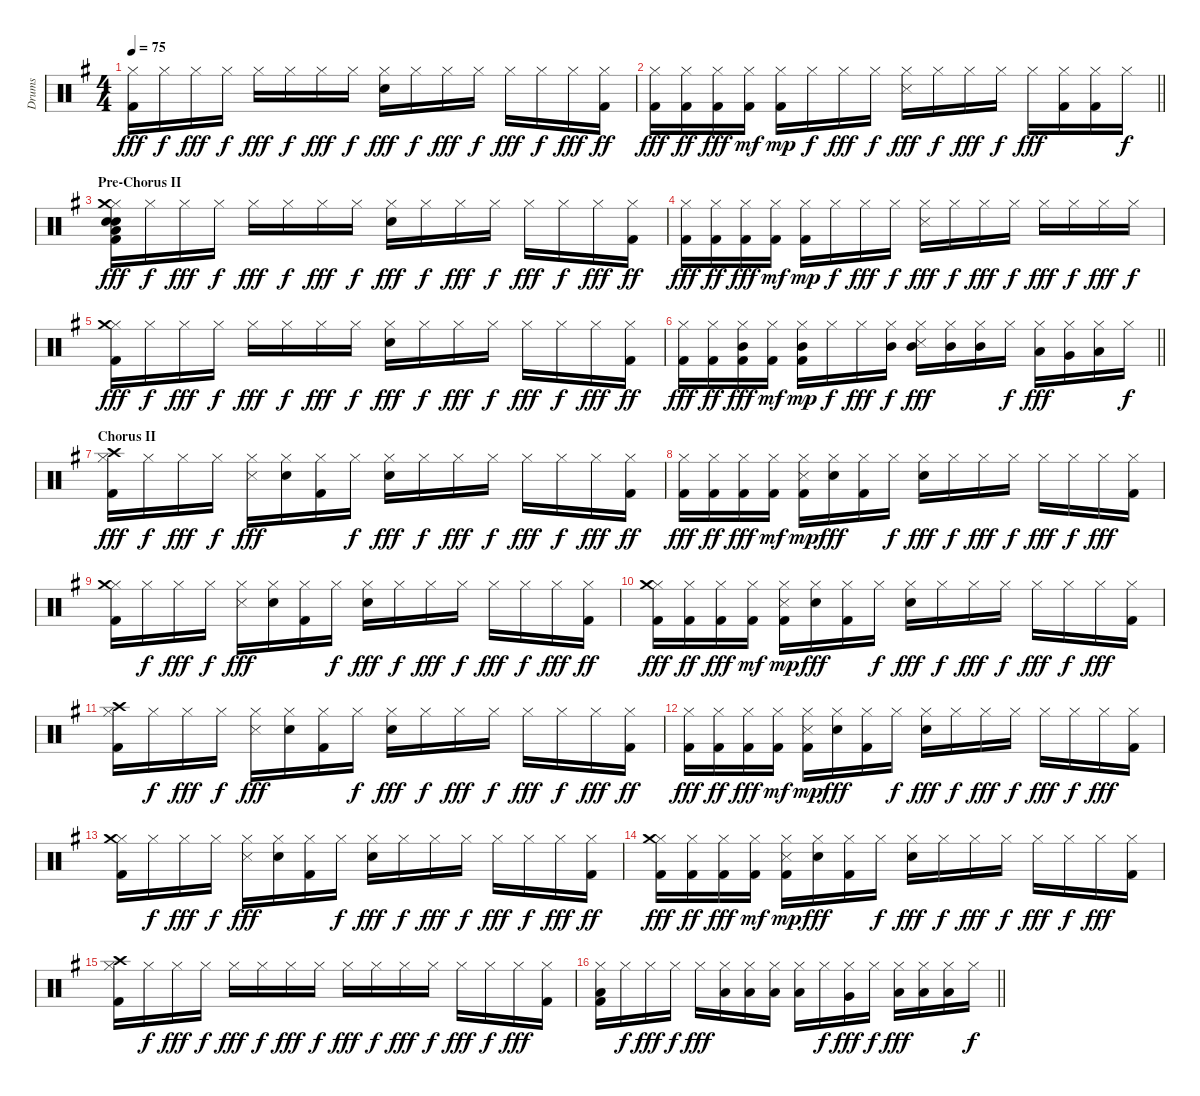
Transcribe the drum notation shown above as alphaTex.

\track ("Drums" "Drums") {instrument percussion}
\staff {score}
\articulation defaults
\ts (4 4)
\tempo 75
\clef neutral
\ks g
("Hi-Hat (closed)" "Kick (hit) 2").16{dy fff} "Hi-Hat (closed)".16{dy f} "Hi-Hat (closed)".16{dy fff} "Hi-Hat (closed)".16{dy f} "Hi-Hat (closed)".16{dy fff} "Hi-Hat (closed)".16{dy f} "Hi-Hat (closed)".16{dy fff} "Hi-Hat (closed)".16{dy f} ("Hi-Hat (closed)" "Snare (hit) 2").16{dy fff} "Hi-Hat (closed)".16{dy f} "Hi-Hat (closed)".16{dy fff} "Hi-Hat (closed)".16{dy f} "Hi-Hat (closed)".16{dy fff} "Hi-Hat (closed)".16{dy f} "Hi-Hat (closed)".16{dy fff} ("Hi-Hat (closed)" "Kick (hit) 2").16{dy ff} |
\barLineRight lightlight
("Hi-Hat (closed)" "Kick (hit) 2").16{dy fff} ("Hi-Hat (closed)" "Kick (hit) 2").16{dy ff} ("Hi-Hat (closed)" "Kick (hit) 2").16{dy fff} ("Hi-Hat (closed)" "Kick (hit) 2").16{dy mf} ("Hi-Hat (closed)" "Kick (hit) 2").16{dy mp} "Hi-Hat (closed)".16{dy f} "Hi-Hat (closed)".16{dy fff} "Hi-Hat (closed)".16{dy f} ("Hi-Hat (closed)" "Snare (side stick) 3").16{dy fff} "Hi-Hat (closed)".16{dy f} "Hi-Hat (closed)".16{dy fff} "Hi-Hat (closed)".16{dy f} "Hi-Hat (closed)".16{dy fff} ("Hi-Hat (closed)" "Kick (hit) 2").16 ("Hi-Hat (closed)" "Kick (hit) 2").16 "Hi-Hat (closed)".16{dy f} |
\section ("" "Pre-Chorus II")
("Hi-Hat (closed)" "Crash medium (hit)" "Low Tom (hit)" "Electric Snare (hit)" "Snare (hit) 2" "Kick (hit) 2").16{dy fff} "Hi-Hat (closed)".16{dy f} "Hi-Hat (closed)".16{dy fff} "Hi-Hat (closed)".16{dy f} "Hi-Hat (closed)".16{dy fff} "Hi-Hat (closed)".16{dy f} "Hi-Hat (closed)".16{dy fff} "Hi-Hat (closed)".16{dy f} ("Hi-Hat (closed)" "Snare (hit) 2").16{dy fff} "Hi-Hat (closed)".16{dy f} "Hi-Hat (closed)".16{dy fff} "Hi-Hat (closed)".16{dy f} "Hi-Hat (closed)".16{dy fff} "Hi-Hat (closed)".16{dy f} "Hi-Hat (closed)".16{dy fff} ("Hi-Hat (closed)" "Kick (hit) 2").16{dy ff} |
("Hi-Hat (closed)" "Kick (hit) 2").16{dy fff} ("Hi-Hat (closed)" "Kick (hit) 2").16{dy ff} ("Hi-Hat (closed)" "Kick (hit) 2").16{dy fff} ("Hi-Hat (closed)" "Kick (hit) 2").16{dy mf} ("Hi-Hat (closed)" "Kick (hit) 2").16{dy mp} "Hi-Hat (closed)".16{dy f} "Hi-Hat (closed)".16{dy fff} "Hi-Hat (closed)".16{dy f} ("Hi-Hat (closed)" "Snare (side stick) 3").16{dy fff} "Hi-Hat (closed)".16{dy f} "Hi-Hat (closed)".16{dy fff} "Hi-Hat (closed)".16{dy f} "Hi-Hat (closed)".16{dy fff} "Hi-Hat (closed)".16{dy f} "Hi-Hat (closed)".16{dy fff} "Hi-Hat (closed)".16{dy f} |
("Hi-Hat (closed)" "Crash medium (hit)" "Kick (hit) 2").16{dy fff} "Hi-Hat (closed)".16{dy f} "Hi-Hat (closed)".16{dy fff} "Hi-Hat (closed)".16{dy f} "Hi-Hat (closed)".16{dy fff} "Hi-Hat (closed)".16{dy f} "Hi-Hat (closed)".16{dy fff} "Hi-Hat (closed)".16{dy f} ("Hi-Hat (closed)" "Snare (hit) 2").16{dy fff} "Hi-Hat (closed)".16{dy f} "Hi-Hat (closed)".16{dy fff} "Hi-Hat (closed)".16{dy f} "Hi-Hat (closed)".16{dy fff} "Hi-Hat (closed)".16{dy f} "Hi-Hat (closed)".16{dy fff} ("Hi-Hat (closed)" "Kick (hit) 2").16{dy ff} |
\barLineRight lightlight
("Hi-Hat (closed)" "Kick (hit) 2").16{dy fff} ("Hi-Hat (closed)" "Kick (hit) 2").16{dy ff} ("Hi-Hat (closed)" "Mid Tom (hit)" "Kick (hit) 2").16{dy fff} ("Hi-Hat (closed)" "Kick (hit) 2").16{dy mf} ("Hi-Hat (closed)" "Mid Tom (hit)" "Kick (hit) 2").16{dy mp} "Hi-Hat (closed)".16{dy f} "Hi-Hat (closed)".16{dy fff} ("Hi-Hat (closed)" "Mid Tom (hit)").16{dy f} ("Hi-Hat (closed)" "Mid Tom (hit)" "Snare (side stick) 3").16{dy fff} ("Hi-Hat (closed)" "Mid Tom (hit)").16 ("Hi-Hat (closed)" "Mid Tom (hit)").16 "Hi-Hat (closed)".16{dy f} ("Hi-Hat (closed)" "Low Tom (hit)").16{dy fff} ("Hi-Hat (closed)" "Very Low Tom (hit)").16 ("Hi-Hat (closed)" "Low Floor Tom (hit)").16 "Hi-Hat (closed)".16{dy f} |
\section ("" "Chorus II")
("Hi-Hat (closed)" "Crash high (hit)" "Kick (hit) 2").16{dy fff} "Hi-Hat (closed)".16{dy f} "Hi-Hat (closed)".16{dy fff} "Hi-Hat (closed)".16{dy f} ("Hi-Hat (closed)" "Snare (side stick) 3").16{dy fff} ("Hi-Hat (closed)" "Snare (hit) 2").16 ("Hi-Hat (closed)" "Kick (hit) 2").16 "Hi-Hat (closed)".16{dy f} ("Hi-Hat (closed)" "Snare (hit) 2").16{dy fff} "Hi-Hat (closed)".16{dy f} "Hi-Hat (closed)".16{dy fff} "Hi-Hat (closed)".16{dy f} "Hi-Hat (closed)".16{dy fff} "Hi-Hat (closed)".16{dy f} "Hi-Hat (closed)".16{dy fff} ("Hi-Hat (closed)" "Kick (hit) 2").16{dy ff} |
("Hi-Hat (closed)" "Kick (hit) 2").16{dy fff} ("Hi-Hat (closed)" "Kick (hit) 2").16{dy ff} ("Hi-Hat (closed)" "Kick (hit) 2").16{dy fff} ("Hi-Hat (closed)" "Kick (hit) 2").16{dy mf} ("Hi-Hat (closed)" "Snare (side stick) 3" "Kick (hit) 2").16{dy mp} ("Hi-Hat (closed)" "Snare (hit) 2").16{dy fff} ("Hi-Hat (closed)" "Kick (hit) 2").16 "Hi-Hat (closed)".16{dy f} ("Hi-Hat (closed)" "Snare (hit) 2").16{dy fff} "Hi-Hat (closed)".16{dy f} "Hi-Hat (closed)".16{dy fff} "Hi-Hat (closed)".16{dy f} "Hi-Hat (closed)".16{dy fff} "Hi-Hat (closed)".16{dy f} "Hi-Hat (closed)".16{dy fff} ("Hi-Hat (closed)" "Kick (hit) 2").16 |
("Hi-Hat (closed)" "Crash medium (hit)" "Kick (hit) 2").16 "Hi-Hat (closed)".16{dy f} "Hi-Hat (closed)".16{dy fff} "Hi-Hat (closed)".16{dy f} ("Hi-Hat (closed)" "Snare (side stick) 3").16{dy fff} ("Hi-Hat (closed)" "Snare (hit) 2").16 ("Hi-Hat (closed)" "Kick (hit) 2").16 "Hi-Hat (closed)".16{dy f} ("Hi-Hat (closed)" "Snare (hit) 2").16{dy fff} "Hi-Hat (closed)".16{dy f} "Hi-Hat (closed)".16{dy fff} "Hi-Hat (closed)".16{dy f} "Hi-Hat (closed)".16{dy fff} "Hi-Hat (closed)".16{dy f} "Hi-Hat (closed)".16{dy fff} ("Hi-Hat (closed)" "Kick (hit) 2").16{dy ff} |
("Hi-Hat (closed)" "Crash medium (hit)" "Kick (hit) 2").16{dy fff} ("Hi-Hat (closed)" "Kick (hit) 2").16{dy ff} ("Hi-Hat (closed)" "Kick (hit) 2").16{dy fff} ("Hi-Hat (closed)" "Kick (hit) 2").16{dy mf} ("Hi-Hat (closed)" "Snare (side stick) 3" "Kick (hit) 2").16{dy mp} ("Hi-Hat (closed)" "Snare (hit) 2").16{dy fff} ("Hi-Hat (closed)" "Kick (hit) 2").16 "Hi-Hat (closed)".16{dy f} ("Hi-Hat (closed)" "Snare (hit) 2").16{dy fff} "Hi-Hat (closed)".16{dy f} "Hi-Hat (closed)".16{dy fff} "Hi-Hat (closed)".16{dy f} "Hi-Hat (closed)".16{dy fff} "Hi-Hat (closed)".16{dy f} "Hi-Hat (closed)".16{dy fff} ("Hi-Hat (closed)" "Kick (hit) 2").16 |
("Hi-Hat (closed)" "Crash high (hit)" "Kick (hit) 2").16 "Hi-Hat (closed)".16{dy f} "Hi-Hat (closed)".16{dy fff} "Hi-Hat (closed)".16{dy f} ("Hi-Hat (closed)" "Snare (side stick) 3").16{dy fff} ("Hi-Hat (closed)" "Snare (hit) 2").16 ("Hi-Hat (closed)" "Kick (hit) 2").16 "Hi-Hat (closed)".16{dy f} ("Hi-Hat (closed)" "Snare (hit) 2").16{dy fff} "Hi-Hat (closed)".16{dy f} "Hi-Hat (closed)".16{dy fff} "Hi-Hat (closed)".16{dy f} "Hi-Hat (closed)".16{dy fff} "Hi-Hat (closed)".16{dy f} "Hi-Hat (closed)".16{dy fff} ("Hi-Hat (closed)" "Kick (hit) 2").16{dy ff} |
("Hi-Hat (closed)" "Kick (hit) 2").16{dy fff} ("Hi-Hat (closed)" "Kick (hit) 2").16{dy ff} ("Hi-Hat (closed)" "Kick (hit) 2").16{dy fff} ("Hi-Hat (closed)" "Kick (hit) 2").16{dy mf} ("Hi-Hat (closed)" "Snare (side stick) 3" "Kick (hit) 2").16{dy mp} ("Hi-Hat (closed)" "Snare (hit) 2").16{dy fff} ("Hi-Hat (closed)" "Kick (hit) 2").16 "Hi-Hat (closed)".16{dy f} ("Hi-Hat (closed)" "Snare (hit) 2").16{dy fff} "Hi-Hat (closed)".16{dy f} "Hi-Hat (closed)".16{dy fff} "Hi-Hat (closed)".16{dy f} "Hi-Hat (closed)".16{dy fff} "Hi-Hat (closed)".16{dy f} "Hi-Hat (closed)".16{dy fff} ("Hi-Hat (closed)" "Kick (hit) 2").16 |
("Hi-Hat (closed)" "Crash medium (hit)" "Kick (hit) 2").16 "Hi-Hat (closed)".16{dy f} "Hi-Hat (closed)".16{dy fff} "Hi-Hat (closed)".16{dy f} ("Hi-Hat (closed)" "Snare (side stick) 3").16{dy fff} ("Hi-Hat (closed)" "Snare (hit) 2").16 ("Hi-Hat (closed)" "Kick (hit) 2").16 "Hi-Hat (closed)".16{dy f} ("Hi-Hat (closed)" "Snare (hit) 2").16{dy fff} "Hi-Hat (closed)".16{dy f} "Hi-Hat (closed)".16{dy fff} "Hi-Hat (closed)".16{dy f} "Hi-Hat (closed)".16{dy fff} "Hi-Hat (closed)".16{dy f} "Hi-Hat (closed)".16{dy fff} ("Hi-Hat (closed)" "Kick (hit) 2").16{dy ff} |
("Hi-Hat (closed)" "Crash medium (hit)" "Kick (hit) 2").16{dy fff} ("Hi-Hat (closed)" "Kick (hit) 2").16{dy ff} ("Hi-Hat (closed)" "Kick (hit) 2").16{dy fff} ("Hi-Hat (closed)" "Kick (hit) 2").16{dy mf} ("Hi-Hat (closed)" "Snare (side stick) 3" "Kick (hit) 2").16{dy mp} ("Hi-Hat (closed)" "Snare (hit) 2").16{dy fff} ("Hi-Hat (closed)" "Kick (hit) 2").16 "Hi-Hat (closed)".16{dy f} ("Hi-Hat (closed)" "Snare (hit) 2").16{dy fff} "Hi-Hat (closed)".16{dy f} "Hi-Hat (closed)".16{dy fff} "Hi-Hat (closed)".16{dy f} "Hi-Hat (closed)".16{dy fff} "Hi-Hat (closed)".16{dy f} "Hi-Hat (closed)".16{dy fff} ("Hi-Hat (closed)" "Kick (hit) 2").16 |
("Hi-Hat (closed)" "Crash high (hit)" "Kick (hit) 2").16 "Hi-Hat (closed)".16{dy f} "Hi-Hat (closed)".16{dy fff} "Hi-Hat (closed)".16{dy f} "Hi-Hat (closed)".16{dy fff} "Hi-Hat (closed)".16{dy f} "Hi-Hat (closed)".16{dy fff} "Hi-Hat (closed)".16{dy f} "Hi-Hat (closed)".16{dy fff} "Hi-Hat (closed)".16{dy f} "Hi-Hat (closed)".16{dy fff} "Hi-Hat (closed)".16{dy f} "Hi-Hat (closed)".16{dy fff} "Hi-Hat (closed)".16{dy f} "Hi-Hat (closed)".16{dy fff} ("Hi-Hat (closed)" "Kick (hit) 2").16 |
\barLineRight lightlight
("Hi-Hat (closed)" "Low Tom (hit)" "Kick (hit) 2").16 "Hi-Hat (closed)".16{dy f} "Hi-Hat (closed)".16{dy fff} "Hi-Hat (closed)".16{dy f} "Hi-Hat (closed)".16{dy fff} ("Hi-Hat (closed)" "Low Tom (hit)").16 ("Hi-Hat (closed)" "Low Tom (hit)").16 ("Hi-Hat (closed)" "Low Tom (hit)").16 ("Hi-Hat (closed)" "Low Tom (hit)").16 "Hi-Hat (closed)".16{dy f} ("Hi-Hat (closed)" "Very Low Tom (hit)").16{dy fff} "Hi-Hat (closed)".16{dy f} ("Hi-Hat (closed)" "Low Floor Tom (hit)").16{dy fff} ("Hi-Hat (closed)" "Low Floor Tom (hit)").16 ("Hi-Hat (closed)" "Low Floor Tom (hit)").16 "Hi-Hat (closed)".16{dy f}
